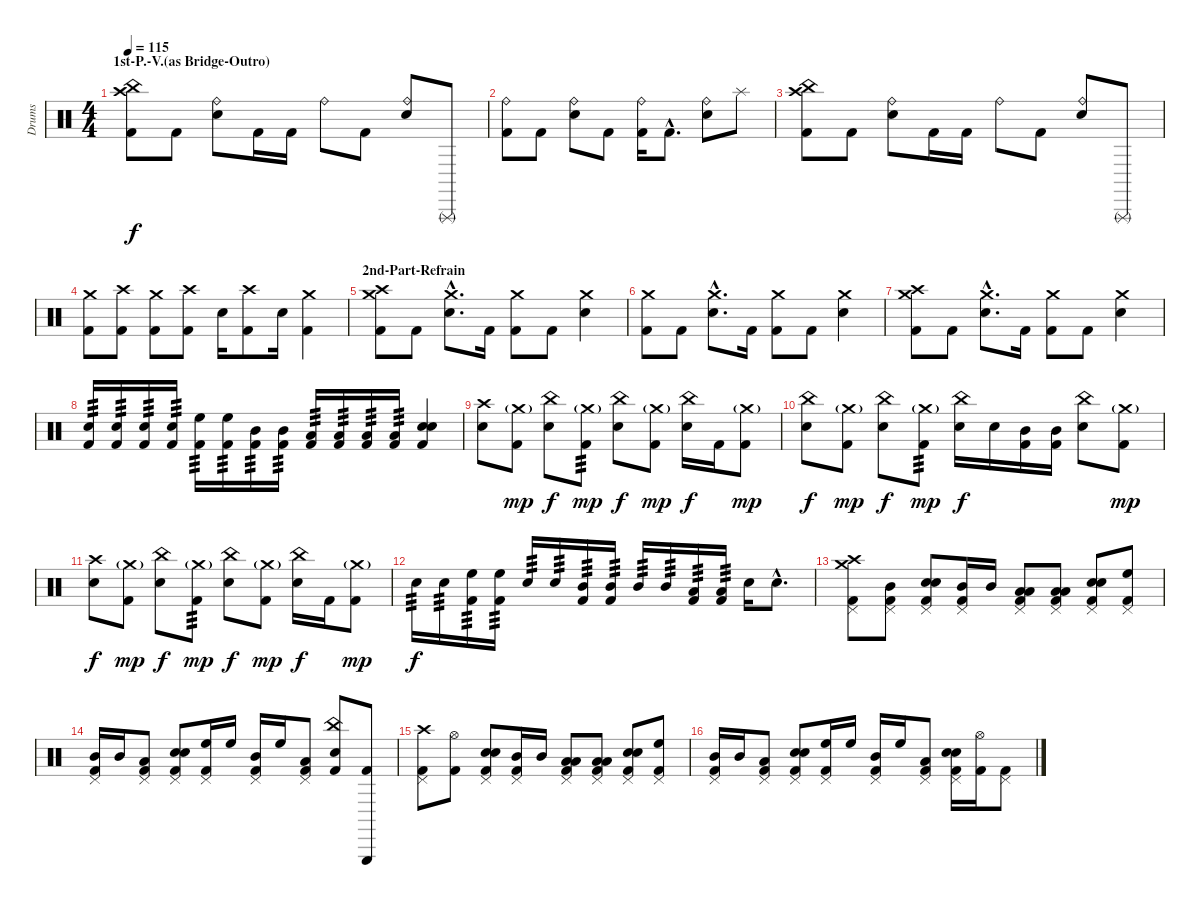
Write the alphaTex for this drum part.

\track ("Drums" "Drums") {instrument percussion}
\staff {score}
\articulation defaults
\ts (4 4)
\section ("" "1st-P.-V.(as Bridge-Outro)")
\tempo 115
\clef neutral
\ks c
("Crash high (hit)" "China (hit)" "Kick (hit) 2").8{dy f} "Kick (hit) 2".8 ("Ride (bell)" "Snare (hit) 2").8 "Kick (hit) 2".16 "Kick (hit) 2".16 "Ride (bell)".8 "Kick (hit) 2".8 ("Ride (bell)" "Snare (hit) 2").8 "Triangle (rnute)".8 |
("Ride (bell)" "Kick (hit) 2").8 "Kick (hit) 2".8 ("Ride (bell)" "Snare (hit) 2").8 "Kick (hit) 2".8 ("Ride (bell)" "Kick (hit) 2").16 "Kick (hit) 2"{hac}.8{d} ("Ride (bell)" "Electric Snare (hit)").8 "Splash (hit)".8 |
("Crash high (hit)" "China (hit)" "Kick (hit) 2").8 "Kick (hit) 2".8 ("Ride (bell)" "Snare (hit) 2").8 "Kick (hit) 2".16 "Kick (hit) 2".16 "Ride (bell)".8 "Kick (hit) 2".8 ("Ride (bell)" "Snare (hit) 2").8 "Triangle (rnute)".8 |
("Crash medium (hit)" "Kick (hit) 2").8 ("Crash high (hit)" "Kick (hit) 2").8 ("Crash medium (hit)" "Kick (hit) 2").8 ("Crash high (hit)" "Kick (hit) 2").8 "Snare (hit) 2".16 ("Crash high (hit)" "Kick (hit) 2").8 "Snare (hit) 2".16 ("Crash medium (hit)" "Kick (hit) 2").4 |
\section ("" "2nd-Part-Refrain")
("Crash medium (hit)" "Crash high (hit)" "Kick (hit) 2").8 "Kick (hit) 2".8 ("Crash medium (hit)"{hac} "Snare (hit) 2"{hac}).8{d} "Kick (hit) 2".16 ("Crash medium (hit)" "Kick (hit) 2").8 "Kick (hit) 2".8 ("Crash medium (hit)" "Snare (hit) 2").4 |
("Crash medium (hit)" "Kick (hit) 2").8 "Kick (hit) 2".8 ("Crash medium (hit)"{hac} "Snare (hit) 2"{hac}).8{d} "Kick (hit) 2".16 ("Crash medium (hit)" "Kick (hit) 2").8 "Kick (hit) 2".8 ("Crash medium (hit)" "Snare (hit) 2").4 |
("Crash medium (hit)" "Crash high (hit)" "Kick (hit) 2").8 "Kick (hit) 2".8 ("Crash medium (hit)"{hac} "Snare (hit) 2"{hac}).8{d} "Kick (hit) 2".16 ("Crash medium (hit)" "Kick (hit) 2").8 "Kick (hit) 2".8 ("Crash medium (hit)" "Snare (hit) 2").4 |
("Snare (hit) 2" "Kick (hit) 2").16{tp 3} ("Snare (hit) 2" "Kick (hit) 2").16{tp 3} ("Snare (hit) 2" "Kick (hit) 2").16{tp 3} ("Snare (hit) 2" "Kick (hit) 2").16{tp 3} ("High Floor Tom (hit)" "Kick (hit) 2").16{tp 3} ("High Floor Tom (hit)" "Kick (hit) 2").16{tp 3} ("Mid Tom (hit)" "Kick (hit) 2").16{tp 3} ("Mid Tom (hit)" "Kick (hit) 2").16{tp 3} ("Low Tom (hit)" "Kick (hit) 2").16{tp 3} ("Low Tom (hit)" "Kick (hit) 2").16{tp 3} ("Low Floor Tom (hit)" "Kick (hit) 2").16{tp 3} ("Low Floor Tom (hit)" "Kick (hit) 2").16{tp 3} ("Snare (hit) 2" "Snare (hit) 2" "Kick (hit) 2").4 |
("Crash high (hit)" "Snare (hit) 2").8 ("Crash medium (hit)"{g} "Kick (hit) 2").8{dy mp} ("China (hit)" "Snare (hit) 2").8{dy f} ("Crash medium (hit)"{g} "Kick (hit) 2").8{tp 3 dy mp} ("China (hit)" "Snare (hit) 2").8{dy f} ("Crash medium (hit)"{g} "Kick (hit) 2").8{dy mp} ("China (hit)" "Snare (hit) 2").16{dy f} "Kick (hit) 2".16 ("Crash medium (hit)"{g} "Kick (hit) 2").8{dy mp} |
("China (hit)" "Snare (hit) 2").8{dy f} ("Crash medium (hit)"{g} "Kick (hit) 2").8{dy mp} ("China (hit)" "Snare (hit) 2").8{dy f} ("Crash medium (hit)"{g} "Kick (hit) 2").8{tp 3 dy mp} ("China (hit)" "Snare (hit) 2").16{dy f} "Snare (hit) 2".16 ("Mid Tom (hit)" "Kick (hit) 2").16 ("Mid Tom (hit)" "Kick (hit) 2").16 ("China (hit)" "Snare (hit) 2").8 ("Crash medium (hit)"{g} "Kick (hit) 2").8{dy mp} |
("Crash high (hit)" "Snare (hit) 2").8{dy f} ("Crash medium (hit)"{g} "Kick (hit) 2").8{dy mp} ("China (hit)" "Snare (hit) 2").8{dy f} ("Crash medium (hit)"{g} "Kick (hit) 2").8{tp 3 dy mp} ("China (hit)" "Snare (hit) 2").8{dy f} ("Crash medium (hit)"{g} "Kick (hit) 2").8{dy mp} ("China (hit)" "Snare (hit) 2").16{dy f} "Kick (hit) 2".16 ("Crash medium (hit)"{g} "Kick (hit) 2").8{dy mp} |
"Snare (hit) 2".16{tp 3 dy f} "Snare (hit) 2".16{tp 3} ("High Floor Tom (hit)" "Kick (hit) 2").16{tp 3} ("High Floor Tom (hit)" "Kick (hit) 2").16{tp 3} "Snare (hit) 2".16{tp 3} "Snare (hit) 2".16{tp 3} ("Mid Tom (hit)" "Kick (hit) 2").16{tp 3} ("Mid Tom (hit)" "Kick (hit) 2").16{tp 3} "Mid Tom (hit)".16{tp 3} "Mid Tom (hit)".16{tp 3} ("Low Tom (hit)" "Kick (hit) 2").16{tp 3} ("Low Tom (hit)" "Kick (hit) 2").16{tp 3} "Snare (hit) 2".16 "Snare (hit) 2"{hac}.8{d} |
("Crash high (hit)" "Crash medium (hit)" "Pedal Hi-Hat (hit)" "Kick (hit) 2").8 ("Pedal Hi-Hat (hit)" "Mid Tom (hit)" "Kick (hit) 2").8 ("Pedal Hi-Hat (hit)" "Snare (hit) 2" "Snare (hit) 2" "Kick (hit) 2").8 ("Pedal Hi-Hat (hit)" "Mid Tom (hit)" "Kick (hit) 2").16 "Mid Tom (hit)".16 ("Pedal Hi-Hat (hit)" "Low Tom (hit)" "Low Floor Tom (hit)" "Kick (hit) 2").8 ("Pedal Hi-Hat (hit)" "Low Tom (hit)" "Low Floor Tom (hit)" "Kick (hit) 2").8 ("Pedal Hi-Hat (hit)" "Snare (hit) 2" "Snare (hit) 2" "Kick (hit) 2").8 ("Pedal Hi-Hat (hit)" "High Floor Tom (hit)" "Kick (hit) 2").8 |
("Pedal Hi-Hat (hit)" "Mid Tom (hit)" "Kick (hit) 2").16 "Mid Tom (hit)".16 ("Pedal Hi-Hat (hit)" "Low Tom (hit)" "Kick (hit) 2").8 ("Pedal Hi-Hat (hit)" "Snare (hit) 2" "Snare (hit) 2" "Kick (hit) 2").8 ("Pedal Hi-Hat (hit)" "High Floor Tom (hit)" "Kick (hit) 2").16 "High Floor Tom (hit)".16 ("Pedal Hi-Hat (hit)" "Mid Tom (hit)" "Kick (hit) 2").16 "High Floor Tom (hit)".16 ("Pedal Hi-Hat (hit)" "Low Tom (hit)" "Kick (hit) 2").8 ("China (hit)" "Snare (hit) 2" "Kick (hit) 2").8 ("Triangle (hit)" "Kick (hit) 2").8 |
("Crash high (hit)" "Pedal Hi-Hat (hit)" "Kick (hit) 2").8 ("Hi-Hat (open)" "Kick (hit) 2").8 ("Pedal Hi-Hat (hit)" "Snare (hit) 2" "Snare (hit) 2" "Kick (hit) 2").8 ("Pedal Hi-Hat (hit)" "Mid Tom (hit)" "Kick (hit) 2").16 "Mid Tom (hit)".16 ("Pedal Hi-Hat (hit)" "Low Tom (hit)" "Low Floor Tom (hit)" "Kick (hit) 2").8 ("Pedal Hi-Hat (hit)" "Low Tom (hit)" "Low Floor Tom (hit)" "Kick (hit) 2").8 ("Pedal Hi-Hat (hit)" "Snare (hit) 2" "Snare (hit) 2" "Kick (hit) 2").8 ("Pedal Hi-Hat (hit)" "High Floor Tom (hit)" "Kick (hit) 2").8 |
("Pedal Hi-Hat (hit)" "Mid Tom (hit)" "Kick (hit) 2").16 "Mid Tom (hit)".16 ("Pedal Hi-Hat (hit)" "Low Tom (hit)" "Kick (hit) 2").8 ("Pedal Hi-Hat (hit)" "Snare (hit) 2" "Snare (hit) 2" "Kick (hit) 2").8 ("Pedal Hi-Hat (hit)" "High Floor Tom (hit)" "Kick (hit) 2").16 "High Floor Tom (hit)".16 ("Pedal Hi-Hat (hit)" "Mid Tom (hit)" "Kick (hit) 2").16 "High Floor Tom (hit)".16 ("Pedal Hi-Hat (hit)" "Low Tom (hit)" "Kick (hit) 2").8 ("Pedal Hi-Hat (hit)" "Snare (hit) 2" "Snare (hit) 2" "Kick (hit) 2").16 ("Hi-Hat (open)" "Kick (hit) 2").16 ("Pedal Hi-Hat (hit)" "Kick (hit) 2").8
